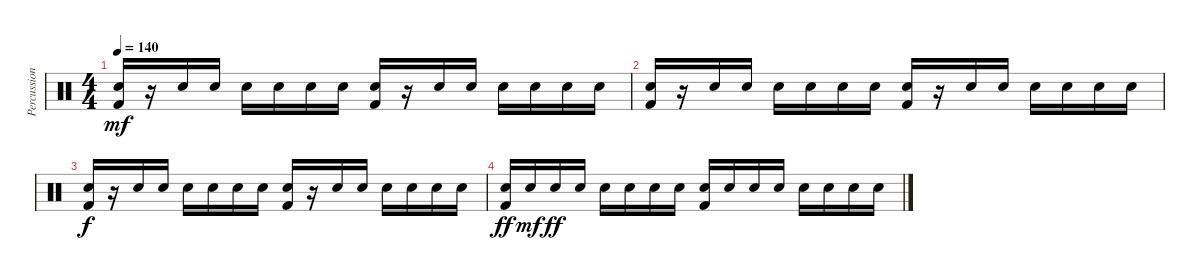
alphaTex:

\track ("Percussion" "Percussion") {instrument percussion}
\staff {score}
\articulation defaults
\ts (4 4)
\tempo 140
\clef neutral
\ks c
("Electric Snare (hit)" "Kick (hit) 2").16{dy mf} r.16 "Electric Snare (hit)".16 "Electric Snare (hit)".16 "Electric Snare (hit)".16 "Electric Snare (hit)".16 "Electric Snare (hit)".16 "Electric Snare (hit)".16 ("Electric Snare (hit)" "Kick (hit) 2").16 r.16 "Electric Snare (hit)".16 "Electric Snare (hit)".16 "Electric Snare (hit)".16 "Electric Snare (hit)".16 "Electric Snare (hit)".16 "Electric Snare (hit)".16 |
("Electric Snare (hit)" "Kick (hit) 2").16 r.16 "Electric Snare (hit)".16 "Electric Snare (hit)".16 "Electric Snare (hit)".16 "Electric Snare (hit)".16 "Electric Snare (hit)".16 "Electric Snare (hit)".16 ("Electric Snare (hit)" "Kick (hit) 2").16 r.16 "Electric Snare (hit)".16 "Electric Snare (hit)".16 "Electric Snare (hit)".16 "Electric Snare (hit)".16 "Electric Snare (hit)".16 "Electric Snare (hit)".16 |
("Electric Snare (hit)" "Kick (hit) 2").16{dy f} r.16 "Electric Snare (hit)".16 "Electric Snare (hit)".16 "Electric Snare (hit)".16 "Electric Snare (hit)".16 "Electric Snare (hit)".16 "Electric Snare (hit)".16 ("Electric Snare (hit)" "Kick (hit) 2").16 r.16 "Electric Snare (hit)".16 "Electric Snare (hit)".16 "Electric Snare (hit)".16 "Electric Snare (hit)".16 "Electric Snare (hit)".16 "Electric Snare (hit)".16 |
("Electric Snare (hit)" "Kick (hit) 2").16{dy ff} "Electric Snare (hit)".16{dy mf} "Electric Snare (hit)".16{dy ff} "Electric Snare (hit)".16 "Electric Snare (hit)".16 "Electric Snare (hit)".16 "Electric Snare (hit)".16 "Electric Snare (hit)".16 ("Electric Snare (hit)" "Kick (hit) 2").16 "Electric Snare (hit)".16 "Electric Snare (hit)".16 "Electric Snare (hit)".16 "Electric Snare (hit)".16 "Electric Snare (hit)".16 "Electric Snare (hit)".16 "Electric Snare (hit)".16
